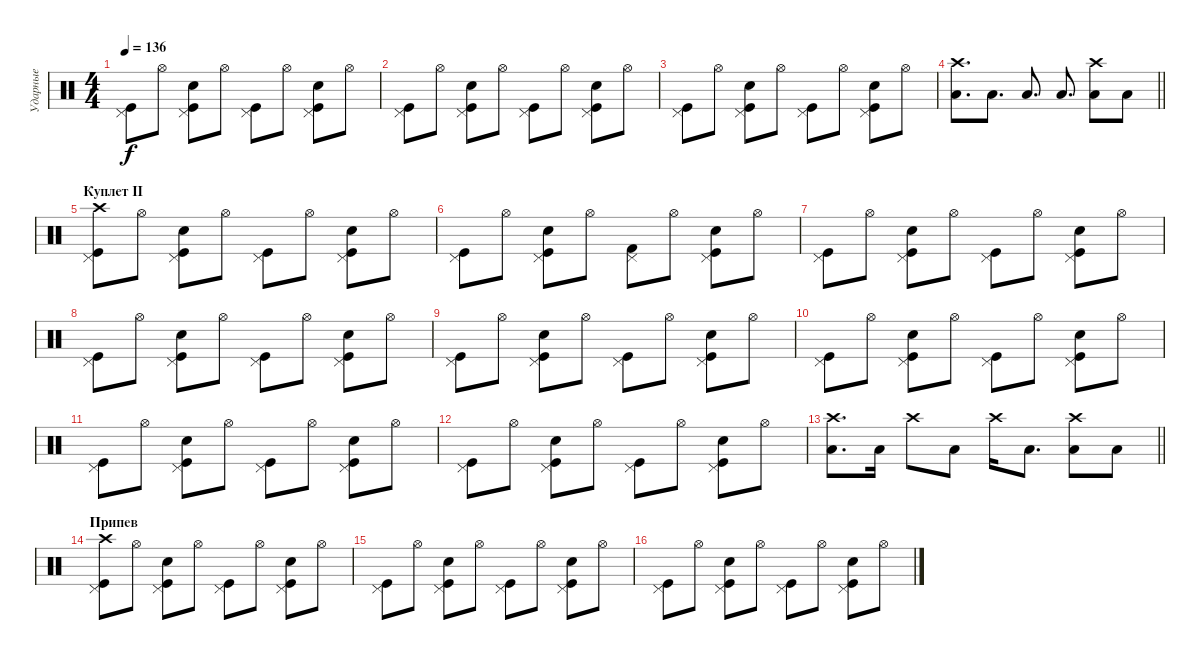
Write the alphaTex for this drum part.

\track ("Ударные" "Ударные") {instrument percussion}
\staff {score}
\articulation defaults
\ts (4 4)
\tempo 136
\clef neutral
\ks c
("Kick (hit)" "Pedal Hi-Hat (hit)").8{dy f} "Hi-Hat (open)".8 ("Kick (hit)" "Hand Clap (hit)" "Pedal Hi-Hat (hit)").8 "Hi-Hat (open)".8 ("Kick (hit)" "Pedal Hi-Hat (hit)").8 "Hi-Hat (open)".8 ("Kick (hit)" "Hand Clap (hit)" "Pedal Hi-Hat (hit)").8 "Hi-Hat (open)".8 |
("Kick (hit)" "Pedal Hi-Hat (hit)").8 "Hi-Hat (open)".8 ("Kick (hit)" "Hand Clap (hit)" "Pedal Hi-Hat (hit)").8 "Hi-Hat (open)".8 ("Kick (hit)" "Pedal Hi-Hat (hit)").8 "Hi-Hat (open)".8 ("Kick (hit)" "Hand Clap (hit)" "Pedal Hi-Hat (hit)").8 "Hi-Hat (open)".8 |
("Kick (hit)" "Pedal Hi-Hat (hit)").8 "Hi-Hat (open)".8 ("Kick (hit)" "Hand Clap (hit)" "Pedal Hi-Hat (hit)").8 "Hi-Hat (open)".8 ("Kick (hit)" "Pedal Hi-Hat (hit)").8 "Hi-Hat (open)".8 ("Kick (hit)" "Hand Clap (hit)" "Pedal Hi-Hat (hit)").8 "Hi-Hat (open)".8 |
\barLineRight lightlight
("Low Tom (hit)" "Crash high (hit)").8{d} "Low Tom (hit)".8{d} "Low Tom (hit)".8{d} "Low Tom (hit)".8{d} ("Low Tom (hit)" "Crash high (hit)").8 "Low Tom (hit)".8 |
\section ("" "Куплет II")
("Kick (hit)" "Crash high (hit)" "Pedal Hi-Hat (hit)").8 "Hi-Hat (open)".8 ("Kick (hit)" "Hand Clap (hit)" "Pedal Hi-Hat (hit)").8 "Hi-Hat (open)".8 ("Kick (hit)" "Pedal Hi-Hat (hit)").8 "Hi-Hat (open)".8 ("Kick (hit)" "Hand Clap (hit)" "Pedal Hi-Hat (hit)").8 "Hi-Hat (open)".8 |
("Kick (hit)" "Pedal Hi-Hat (hit)").8 "Hi-Hat (open)".8 ("Kick (hit)" "Hand Clap (hit)" "Pedal Hi-Hat (hit)").8 "Hi-Hat (open)".8 ("Kick (hit) 2" "Pedal Hi-Hat (hit)").8 "Hi-Hat (open)".8 ("Kick (hit)" "Hand Clap (hit)" "Pedal Hi-Hat (hit)").8 "Hi-Hat (open)".8 |
("Kick (hit)" "Pedal Hi-Hat (hit)").8 "Hi-Hat (open)".8 ("Kick (hit)" "Hand Clap (hit)" "Pedal Hi-Hat (hit)").8 "Hi-Hat (open)".8 ("Kick (hit)" "Pedal Hi-Hat (hit)").8 "Hi-Hat (open)".8 ("Kick (hit)" "Hand Clap (hit)" "Pedal Hi-Hat (hit)").8 "Hi-Hat (open)".8 |
("Kick (hit)" "Pedal Hi-Hat (hit)").8 "Hi-Hat (open)".8 ("Kick (hit)" "Hand Clap (hit)" "Pedal Hi-Hat (hit)").8 "Hi-Hat (open)".8 ("Kick (hit)" "Pedal Hi-Hat (hit)").8 "Hi-Hat (open)".8 ("Kick (hit)" "Hand Clap (hit)" "Pedal Hi-Hat (hit)").8 "Hi-Hat (open)".8 |
("Kick (hit)" "Pedal Hi-Hat (hit)").8 "Hi-Hat (open)".8 ("Kick (hit)" "Hand Clap (hit)" "Pedal Hi-Hat (hit)").8 "Hi-Hat (open)".8 ("Kick (hit)" "Pedal Hi-Hat (hit)").8 "Hi-Hat (open)".8 ("Kick (hit)" "Hand Clap (hit)" "Pedal Hi-Hat (hit)").8 "Hi-Hat (open)".8 |
("Kick (hit)" "Pedal Hi-Hat (hit)").8 "Hi-Hat (open)".8 ("Kick (hit)" "Hand Clap (hit)" "Pedal Hi-Hat (hit)").8 "Hi-Hat (open)".8 ("Kick (hit)" "Pedal Hi-Hat (hit)").8 "Hi-Hat (open)".8 ("Kick (hit)" "Hand Clap (hit)" "Pedal Hi-Hat (hit)").8 "Hi-Hat (open)".8 |
("Kick (hit)" "Pedal Hi-Hat (hit)").8 "Hi-Hat (open)".8 ("Kick (hit)" "Hand Clap (hit)" "Pedal Hi-Hat (hit)").8 "Hi-Hat (open)".8 ("Kick (hit)" "Pedal Hi-Hat (hit)").8 "Hi-Hat (open)".8 ("Kick (hit)" "Hand Clap (hit)" "Pedal Hi-Hat (hit)").8 "Hi-Hat (open)".8 |
("Kick (hit)" "Pedal Hi-Hat (hit)").8 "Hi-Hat (open)".8 ("Kick (hit)" "Hand Clap (hit)" "Pedal Hi-Hat (hit)").8 "Hi-Hat (open)".8 ("Kick (hit)" "Pedal Hi-Hat (hit)").8 "Hi-Hat (open)".8 ("Kick (hit)" "Hand Clap (hit)" "Pedal Hi-Hat (hit)").8 "Hi-Hat (open)".8 |
\barLineRight lightlight
("Low Tom (hit)" "Crash high (hit)").8{d} "Low Tom (hit)".16 "Crash high (hit)".8 "Low Tom (hit)".8 "Crash high (hit)".16 "Low Tom (hit)".8{d} ("Low Tom (hit)" "Crash high (hit)").8 "Low Tom (hit)".8 |
\section ("" "Припев")
("Kick (hit)" "Crash high (hit)" "Pedal Hi-Hat (hit)").8 "Hi-Hat (open)".8 ("Kick (hit)" "Hand Clap (hit)" "Pedal Hi-Hat (hit)").8 "Hi-Hat (open)".8 ("Kick (hit)" "Pedal Hi-Hat (hit)").8 "Hi-Hat (open)".8 ("Kick (hit)" "Hand Clap (hit)" "Pedal Hi-Hat (hit)").8 "Hi-Hat (open)".8 |
("Kick (hit)" "Pedal Hi-Hat (hit)").8 "Hi-Hat (open)".8 ("Kick (hit)" "Hand Clap (hit)" "Pedal Hi-Hat (hit)").8 "Hi-Hat (open)".8 ("Kick (hit)" "Pedal Hi-Hat (hit)").8 "Hi-Hat (open)".8 ("Kick (hit)" "Hand Clap (hit)" "Pedal Hi-Hat (hit)").8 "Hi-Hat (open)".8 |
("Kick (hit)" "Pedal Hi-Hat (hit)").8 "Hi-Hat (open)".8 ("Kick (hit)" "Hand Clap (hit)" "Pedal Hi-Hat (hit)").8 "Hi-Hat (open)".8 ("Kick (hit)" "Pedal Hi-Hat (hit)").8 "Hi-Hat (open)".8 ("Kick (hit)" "Hand Clap (hit)" "Pedal Hi-Hat (hit)").8 "Hi-Hat (open)".8
